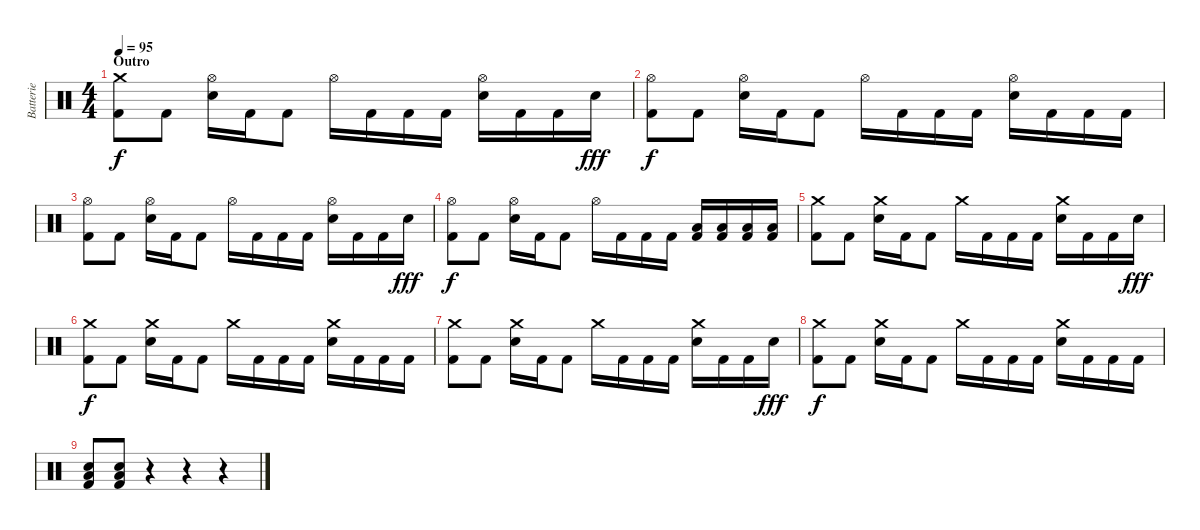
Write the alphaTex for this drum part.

\track ("Batterie" "Batterie") {instrument percussion}
\staff {score}
\articulation defaults
\ts (4 4)
\section ("" "Outro")
\tempo 95
\clef neutral
\ks c
("Crash medium (hit)" "Kick (hit) 2").8{dy f} "Kick (hit) 2".8 ("Hi-Hat (open)" "Electric Snare (hit)").16 "Kick (hit) 2".16 "Kick (hit) 2".8 "Hi-Hat (open)".16 "Kick (hit) 2".16 "Kick (hit) 2".16 "Kick (hit) 2".16 ("Hi-Hat (open)" "Electric Snare (hit)").16 "Kick (hit) 2".16 "Kick (hit) 2".16 "Electric Snare (hit)".16{dy fff} |
("Hi-Hat (open)" "Kick (hit) 2").8{dy f} "Kick (hit) 2".8 ("Hi-Hat (open)" "Electric Snare (hit)").16 "Kick (hit) 2".16 "Kick (hit) 2".8 "Hi-Hat (open)".16 "Kick (hit) 2".16 "Kick (hit) 2".16 "Kick (hit) 2".16 ("Hi-Hat (open)" "Electric Snare (hit)").16 "Kick (hit) 2".16 "Kick (hit) 2".16 "Kick (hit) 2".16 |
("Hi-Hat (open)" "Kick (hit) 2").8 "Kick (hit) 2".8 ("Hi-Hat (open)" "Electric Snare (hit)").16 "Kick (hit) 2".16 "Kick (hit) 2".8 "Hi-Hat (open)".16 "Kick (hit) 2".16 "Kick (hit) 2".16 "Kick (hit) 2".16 ("Hi-Hat (open)" "Electric Snare (hit)").16 "Kick (hit) 2".16 "Kick (hit) 2".16 "Electric Snare (hit)".16{dy fff} |
("Hi-Hat (open)" "Kick (hit) 2").8{dy f} "Kick (hit) 2".8 ("Hi-Hat (open)" "Electric Snare (hit)").16 "Kick (hit) 2".16 "Kick (hit) 2".8 "Hi-Hat (open)".16 "Kick (hit) 2".16 "Kick (hit) 2".16 "Kick (hit) 2".16 ("Low Floor Tom (hit)" "Kick (hit) 2").16 ("Low Floor Tom (hit)" "Kick (hit) 2").16 ("Low Floor Tom (hit)" "Kick (hit) 2").16 ("Low Floor Tom (hit)" "Kick (hit) 2").16 |
("Crash medium (hit)" "Kick (hit) 2").8 "Kick (hit) 2".8 ("Crash medium (hit)" "Electric Snare (hit)").16 "Kick (hit) 2".16 "Kick (hit) 2".8 "Crash medium (hit)".16 "Kick (hit) 2".16 "Kick (hit) 2".16 "Kick (hit) 2".16 ("Crash medium (hit)" "Electric Snare (hit)").16 "Kick (hit) 2".16 "Kick (hit) 2".16 "Electric Snare (hit)".16{dy fff} |
("Crash medium (hit)" "Kick (hit) 2").8{dy f} "Kick (hit) 2".8 ("Crash medium (hit)" "Electric Snare (hit)").16 "Kick (hit) 2".16 "Kick (hit) 2".8 "Crash medium (hit)".16 "Kick (hit) 2".16 "Kick (hit) 2".16 "Kick (hit) 2".16 ("Crash medium (hit)" "Electric Snare (hit)").16 "Kick (hit) 2".16 "Kick (hit) 2".16 "Kick (hit) 2".16 |
("Crash medium (hit)" "Kick (hit) 2").8 "Kick (hit) 2".8 ("Crash medium (hit)" "Electric Snare (hit)").16 "Kick (hit) 2".16 "Kick (hit) 2".8 "Crash medium (hit)".16 "Kick (hit) 2".16 "Kick (hit) 2".16 "Kick (hit) 2".16 ("Crash medium (hit)" "Electric Snare (hit)").16 "Kick (hit) 2".16 "Kick (hit) 2".16 "Electric Snare (hit)".16{dy fff} |
("Crash medium (hit)" "Kick (hit) 2").8{dy f} "Kick (hit) 2".8 ("Crash medium (hit)" "Electric Snare (hit)").16 "Kick (hit) 2".16 "Kick (hit) 2".8 "Crash medium (hit)".16 "Kick (hit) 2".16 "Kick (hit) 2".16 "Kick (hit) 2".16 ("Crash medium (hit)" "Electric Snare (hit)").16 "Kick (hit) 2".16 "Kick (hit) 2".16 "Kick (hit) 2".16 |
("Low Floor Tom (hit)" "Electric Snare (hit)" "Kick (hit) 2").8 ("Low Floor Tom (hit)" "Electric Snare (hit)" "Kick (hit) 2").8 r.4 r.4 r.4
